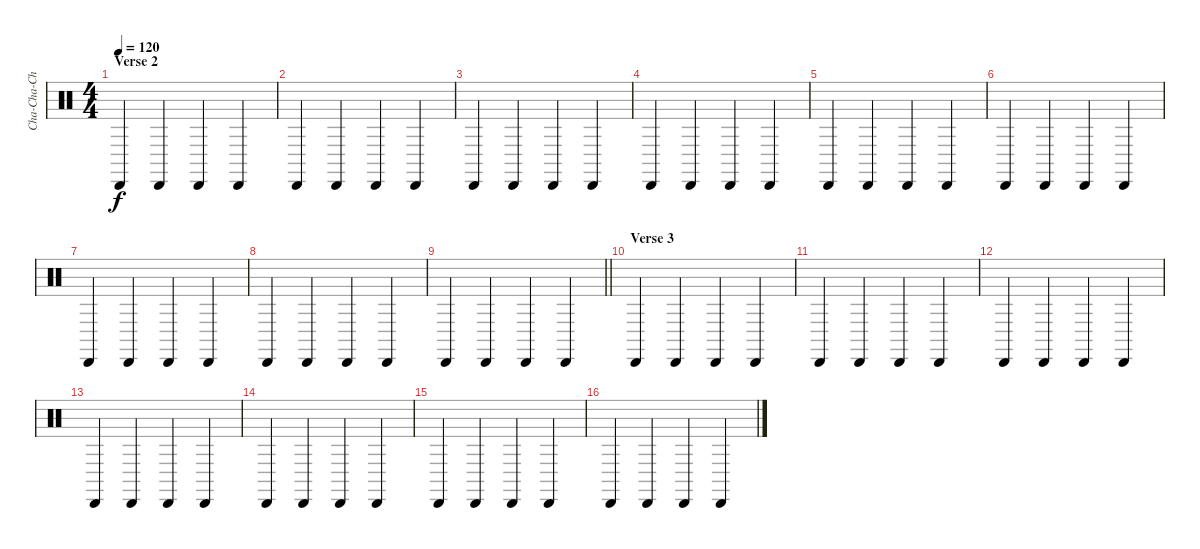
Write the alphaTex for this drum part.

\track ("Cha-Cha-Cha's" "Cha-Cha-Ch") {instrument percussion}
\staff {score}
\articulation defaults
\ts (4 4)
\section ("" "Verse 2")
\tempo 120
\clef neutral
\ks c "Cabasa (hit)".4{dy f} "Cabasa (hit)".4 "Cabasa (hit)".4 "Cabasa (hit)".4
|
"Cabasa (hit)".4 "Cabasa (hit)".4 "Cabasa (hit)".4 "Cabasa (hit)".4 |
"Cabasa (hit)".4 "Cabasa (hit)".4 "Cabasa (hit)".4 "Cabasa (hit)".4 |
"Cabasa (hit)".4 "Cabasa (hit)".4 "Cabasa (hit)".4 "Cabasa (hit)".4 |
"Cabasa (hit)".4 "Cabasa (hit)".4 "Cabasa (hit)".4 "Cabasa (hit)".4 |
"Cabasa (hit)".4 "Cabasa (hit)".4 "Cabasa (hit)".4 "Cabasa (hit)".4 |
"Cabasa (hit)".4 "Cabasa (hit)".4 "Cabasa (hit)".4 "Cabasa (hit)".4 |
"Cabasa (hit)".4 "Cabasa (hit)".4 "Cabasa (hit)".4 "Cabasa (hit)".4 |
\barLineRight lightlight "Cabasa (hit)".4 "Cabasa (hit)".4 "Cabasa (hit)".4 "Cabasa (hit)".4
|
\section ("" "Verse 3")
"Cabasa (hit)".4 "Cabasa (hit)".4 "Cabasa (hit)".4 "Cabasa (hit)".4 |
"Cabasa (hit)".4 "Cabasa (hit)".4 "Cabasa (hit)".4 "Cabasa (hit)".4 |
"Cabasa (hit)".4 "Cabasa (hit)".4 "Cabasa (hit)".4 "Cabasa (hit)".4 |
"Cabasa (hit)".4 "Cabasa (hit)".4 "Cabasa (hit)".4 "Cabasa (hit)".4 |
"Cabasa (hit)".4 "Cabasa (hit)".4 "Cabasa (hit)".4 "Cabasa (hit)".4 |
"Cabasa (hit)".4 "Cabasa (hit)".4 "Cabasa (hit)".4 "Cabasa (hit)".4 |
"Cabasa (hit)".4 "Cabasa (hit)".4 "Cabasa (hit)".4 "Cabasa (hit)".4
